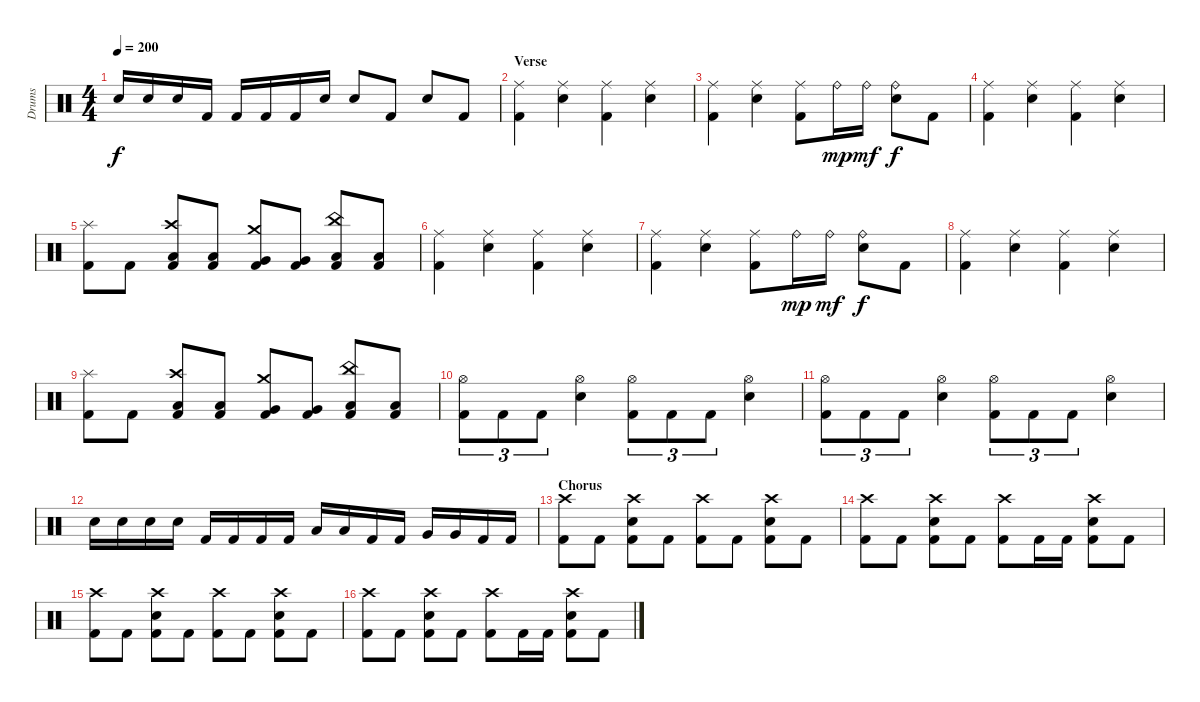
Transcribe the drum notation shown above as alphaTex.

\track ("Drums" "Drums") {instrument percussion}
\staff {score}
\articulation defaults
\ts (4 4)
\tempo 200
\clef neutral
\ks c "Electric Snare (hit)".16{dy f} "Electric Snare (hit)".16 "Electric Snare (hit)".16 "Kick (hit) 2".16 "Kick (hit) 2".16 "Kick (hit) 2".16 "Kick (hit) 2".16 "Electric Snare (hit)".16 "Electric Snare (hit)".8 "Kick (hit) 2".8 "Electric Snare (hit)".8 "Kick (hit) 2".8
|
\section ("" "Verse")
("Ride (middle)" "Kick (hit) 2").4 ("Ride (middle)" "Electric Snare (hit)").4 ("Ride (middle)" "Kick (hit) 2").4 ("Ride (middle)" "Electric Snare (hit)").4 |
("Ride (middle)" "Kick (hit) 2").4 ("Ride (middle)" "Electric Snare (hit)").4 ("Ride (middle)" "Kick (hit) 2").8 "Ride (bell)".16{dy mp} "Ride (bell)".16{dy mf} ("Ride (bell)" "Electric Snare (hit)").8{dy f} "Kick (hit) 2".8 |
("Ride (middle)" "Kick (hit) 2").4 ("Ride (middle)" "Electric Snare (hit)").4 ("Ride (middle)" "Kick (hit) 2").4 ("Ride (middle)" "Electric Snare (hit)").4 |
("Splash (hit)" "Kick (hit) 2").8 "Kick (hit) 2".8 ("Crash high (hit)" "Low Tom (hit)" "Kick (hit) 2").8 ("Low Tom (hit)" "Kick (hit) 2").8 ("Crash medium (hit)" "Very Low Tom (hit)" "Kick (hit) 2").8 ("Very Low Tom (hit)" "Kick (hit) 2").8 ("China (hit)" "Low Floor Tom (hit)" "Kick (hit) 2").8 ("Low Floor Tom (hit)" "Kick (hit) 2").8 |
("Ride (middle)" "Kick (hit) 2").4 ("Ride (middle)" "Electric Snare (hit)").4 ("Ride (middle)" "Kick (hit) 2").4 ("Ride (middle)" "Electric Snare (hit)").4 |
("Ride (middle)" "Kick (hit) 2").4 ("Ride (middle)" "Electric Snare (hit)").4 ("Ride (middle)" "Kick (hit) 2").8 "Ride (bell)".16{dy mp} "Ride (bell)".16{dy mf} ("Ride (bell)" "Electric Snare (hit)").8{dy f} "Kick (hit) 2".8 |
("Ride (middle)" "Kick (hit) 2").4 ("Ride (middle)" "Electric Snare (hit)").4 ("Ride (middle)" "Kick (hit) 2").4 ("Ride (middle)" "Electric Snare (hit)").4 |
("Splash (hit)" "Kick (hit) 2").8 "Kick (hit) 2".8 ("Crash high (hit)" "Low Tom (hit)" "Kick (hit) 2").8 ("Low Tom (hit)" "Kick (hit) 2").8 ("Crash medium (hit)" "Very Low Tom (hit)" "Kick (hit) 2").8 ("Very Low Tom (hit)" "Kick (hit) 2").8 ("China (hit)" "Low Floor Tom (hit)" "Kick (hit) 2").8 ("Low Floor Tom (hit)" "Kick (hit) 2").8 |
("Hi-Hat (open)" "Kick (hit) 2").8{tu (3 2)} "Kick (hit) 2".8{tu (3 2)} "Kick (hit) 2".8{tu (3 2)} ("Hi-Hat (open)" "Electric Snare (hit)").4 ("Hi-Hat (open)" "Kick (hit) 2").8{tu (3 2)} "Kick (hit) 2".8{tu (3 2)} "Kick (hit) 2".8{tu (3 2)} ("Hi-Hat (open)" "Electric Snare (hit)").4 |
("Hi-Hat (open)" "Kick (hit) 2").8{tu (3 2)} "Kick (hit) 2".8{tu (3 2)} "Kick (hit) 2".8{tu (3 2)} ("Hi-Hat (open)" "Electric Snare (hit)").4 ("Hi-Hat (open)" "Kick (hit) 2").8{tu (3 2)} "Kick (hit) 2".8{tu (3 2)} "Kick (hit) 2".8{tu (3 2)} ("Hi-Hat (open)" "Electric Snare (hit)").4 |
"Electric Snare (hit)".16 "Electric Snare (hit)".16 "Electric Snare (hit)".16 "Electric Snare (hit)".16 "Kick (hit) 2".16 "Kick (hit) 2".16 "Kick (hit) 2".16 "Kick (hit) 2".16 "Low Tom (hit)".16 "Low Tom (hit)".16 "Kick (hit) 2".16 "Kick (hit) 2".16 "Very Low Tom (hit)".16 "Very Low Tom (hit)".16 "Kick (hit) 2".16 "Kick (hit) 2".16 |
\section ("" "Chorus")
("Crash high (hit)" "Kick (hit) 2").8 "Kick (hit) 2".8 ("Crash high (hit)" "Electric Snare (hit)" "Kick (hit) 2").8 "Kick (hit) 2".8 ("Crash high (hit)" "Kick (hit) 2").8 "Kick (hit) 2".8 ("Crash high (hit)" "Electric Snare (hit)" "Kick (hit) 2").8 "Kick (hit) 2".8 |
("Crash high (hit)" "Kick (hit) 2").8 "Kick (hit) 2".8 ("Crash high (hit)" "Electric Snare (hit)" "Kick (hit) 2").8 "Kick (hit) 2".8 ("Crash high (hit)" "Kick (hit) 2").8 "Kick (hit) 2".16 "Kick (hit) 2".16 ("Crash high (hit)" "Electric Snare (hit)" "Kick (hit) 2").8 "Kick (hit) 2".8 |
("Crash high (hit)" "Kick (hit) 2").8 "Kick (hit) 2".8 ("Crash high (hit)" "Electric Snare (hit)" "Kick (hit) 2").8 "Kick (hit) 2".8 ("Crash high (hit)" "Kick (hit) 2").8 "Kick (hit) 2".8 ("Crash high (hit)" "Electric Snare (hit)" "Kick (hit) 2").8 "Kick (hit) 2".8 |
("Crash high (hit)" "Kick (hit) 2").8 "Kick (hit) 2".8 ("Crash high (hit)" "Electric Snare (hit)" "Kick (hit) 2").8 "Kick (hit) 2".8 ("Crash high (hit)" "Kick (hit) 2").8 "Kick (hit) 2".16 "Kick (hit) 2".16 ("Crash high (hit)" "Electric Snare (hit)" "Kick (hit) 2").8 "Kick (hit) 2".8
